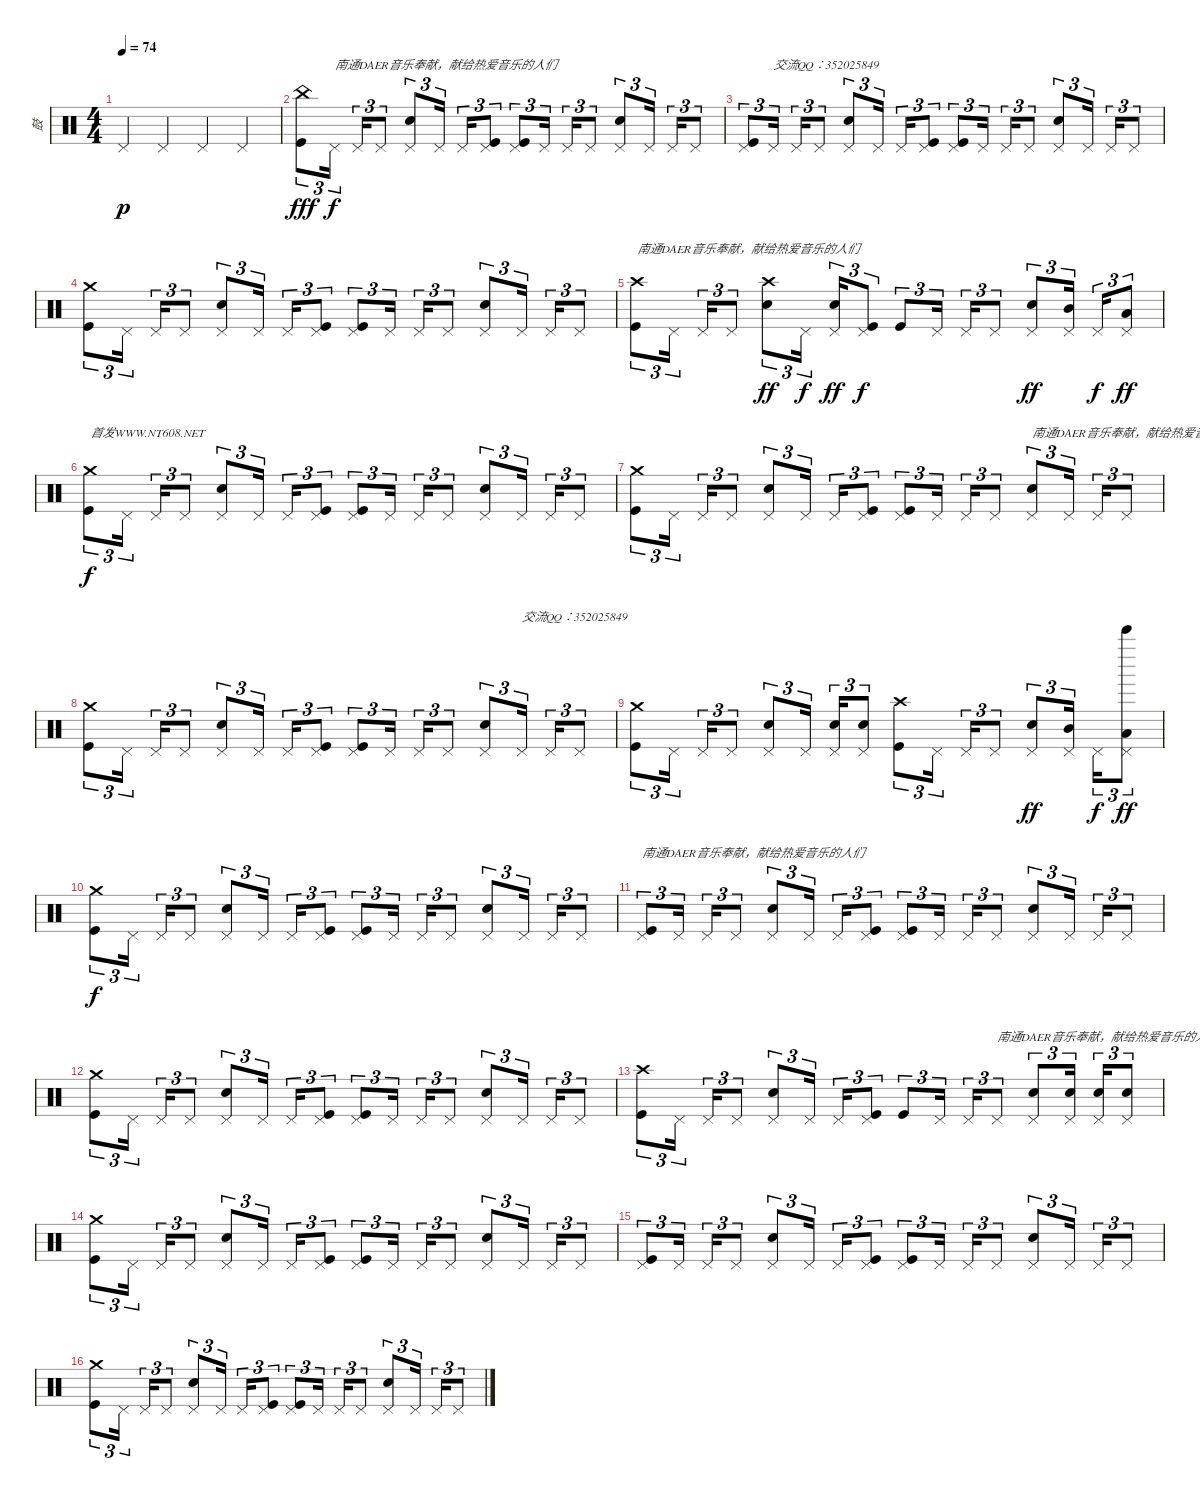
\track ("鼓" "鼓") {instrument percussion}
\staff {score}
\articulation defaults
\ts (4 4)
\tempo 74
\clef neutral
\ks c "Pedal Hi-Hat (hit)".4{dy p} "Pedal Hi-Hat (hit)".4 "Pedal Hi-Hat (hit)".4 "Pedal Hi-Hat (hit)".4
|
("China (hit)" "Kick (hit)").8{tu (3 2) dy fff} "Pedal Hi-Hat (hit)".16{tu (3 2) txt "南通DAER音乐奉献，献给热爱音乐的人们" dy f} "Pedal Hi-Hat (hit)".16{tu (3 2)} "Pedal Hi-Hat (hit)".8{tu (3 2)} ("Pedal Hi-Hat (hit)" "Electric Snare (hit)").8{tu (3 2)} "Pedal Hi-Hat (hit)".16{tu (3 2)} "Pedal Hi-Hat (hit)".16{tu (3 2)} ("Pedal Hi-Hat (hit)" "Kick (hit)").8{tu (3 2)} ("Pedal Hi-Hat (hit)" "Kick (hit)").8{tu (3 2)} "Pedal Hi-Hat (hit)".16{tu (3 2)} "Pedal Hi-Hat (hit)".16{tu (3 2)} "Pedal Hi-Hat (hit)".8{tu (3 2)} ("Pedal Hi-Hat (hit)" "Electric Snare (hit)").8{tu (3 2)} "Pedal Hi-Hat (hit)".16{tu (3 2)} "Pedal Hi-Hat (hit)".16{tu (3 2)} "Pedal Hi-Hat (hit)".8{tu (3 2)} |
("Pedal Hi-Hat (hit)" "Kick (hit)").8{tu (3 2)} "Pedal Hi-Hat (hit)".16{tu (3 2) txt "交流QQ：352025849"} "Pedal Hi-Hat (hit)".16{tu (3 2)} "Pedal Hi-Hat (hit)".8{tu (3 2)} ("Pedal Hi-Hat (hit)" "Electric Snare (hit)").8{tu (3 2)} "Pedal Hi-Hat (hit)".16{tu (3 2)} "Pedal Hi-Hat (hit)".16{tu (3 2)} ("Pedal Hi-Hat (hit)" "Kick (hit)").8{tu (3 2)} ("Pedal Hi-Hat (hit)" "Kick (hit)").8{tu (3 2)} "Pedal Hi-Hat (hit)".16{tu (3 2)} "Pedal Hi-Hat (hit)".16{tu (3 2)} "Pedal Hi-Hat (hit)".8{tu (3 2)} ("Pedal Hi-Hat (hit)" "Electric Snare (hit)").8{tu (3 2)} "Pedal Hi-Hat (hit)".16{tu (3 2)} "Pedal Hi-Hat (hit)".16{tu (3 2)} "Pedal Hi-Hat (hit)".8{tu (3 2)} |
("Crash medium (hit)" "Kick (hit)").8{tu (3 2)} "Pedal Hi-Hat (hit)".16{tu (3 2)} "Pedal Hi-Hat (hit)".16{tu (3 2)} "Pedal Hi-Hat (hit)".8{tu (3 2)} ("Pedal Hi-Hat (hit)" "Electric Snare (hit)").8{tu (3 2)} "Pedal Hi-Hat (hit)".16{tu (3 2)} "Pedal Hi-Hat (hit)".16{tu (3 2)} ("Pedal Hi-Hat (hit)" "Kick (hit)").8{tu (3 2)} ("Pedal Hi-Hat (hit)" "Kick (hit)").8{tu (3 2)} "Pedal Hi-Hat (hit)".16{tu (3 2)} "Pedal Hi-Hat (hit)".16{tu (3 2)} "Pedal Hi-Hat (hit)".8{tu (3 2)} ("Pedal Hi-Hat (hit)" "Electric Snare (hit)").8{tu (3 2)} "Pedal Hi-Hat (hit)".16{tu (3 2)} "Pedal Hi-Hat (hit)".16{tu (3 2)} "Pedal Hi-Hat (hit)".8{tu (3 2)} |
("Crash high (hit)" "Kick (hit)").8{tu (3 2) txt "南通DAER音乐奉献，献给热爱音乐的人们"} "Pedal Hi-Hat (hit)".16{tu (3 2)} "Pedal Hi-Hat (hit)".16{tu (3 2)} "Pedal Hi-Hat (hit)".8{tu (3 2)} ("Crash high (hit)" "Electric Snare (hit)").8{tu (3 2) dy ff} "Pedal Hi-Hat (hit)".16{tu (3 2) dy f} ("Pedal Hi-Hat (hit)" "Electric Snare (hit)").16{tu (3 2) dy ff} ("Pedal Hi-Hat (hit)" "Kick (hit)").8{tu (3 2) dy f} "Kick (hit)".8{tu (3 2)} "Pedal Hi-Hat (hit)".16{tu (3 2)} "Pedal Hi-Hat (hit)".16{tu (3 2)} "Pedal Hi-Hat (hit)".8{tu (3 2)} ("Pedal Hi-Hat (hit)" "Electric Snare (hit)").8{tu (3 2) dy ff} ("Pedal Hi-Hat (hit)" "Mid Tom (hit)").16{tu (3 2)} "Pedal Hi-Hat (hit)".16{tu (3 2) dy f} ("Pedal Hi-Hat (hit)" "Low Tom (hit)").8{tu (3 2) dy ff} |
("Crash medium (hit)" "Kick (hit)").8{tu (3 2) txt "首发WWW.NT608.NET" dy f} "Pedal Hi-Hat (hit)".16{tu (3 2)} "Pedal Hi-Hat (hit)".16{tu (3 2)} "Pedal Hi-Hat (hit)".8{tu (3 2)} ("Pedal Hi-Hat (hit)" "Electric Snare (hit)").8{tu (3 2)} "Pedal Hi-Hat (hit)".16{tu (3 2)} "Pedal Hi-Hat (hit)".16{tu (3 2)} ("Pedal Hi-Hat (hit)" "Kick (hit)").8{tu (3 2)} ("Pedal Hi-Hat (hit)" "Kick (hit)").8{tu (3 2)} "Pedal Hi-Hat (hit)".16{tu (3 2)} "Pedal Hi-Hat (hit)".16{tu (3 2)} "Pedal Hi-Hat (hit)".8{tu (3 2)} ("Pedal Hi-Hat (hit)" "Electric Snare (hit)").8{tu (3 2)} "Pedal Hi-Hat (hit)".16{tu (3 2)} "Pedal Hi-Hat (hit)".16{tu (3 2)} "Pedal Hi-Hat (hit)".8{tu (3 2)} |
("Crash medium (hit)" "Kick (hit)").8{tu (3 2)} "Pedal Hi-Hat (hit)".16{tu (3 2)} "Pedal Hi-Hat (hit)".16{tu (3 2)} "Pedal Hi-Hat (hit)".8{tu (3 2)} ("Pedal Hi-Hat (hit)" "Electric Snare (hit)").8{tu (3 2)} "Pedal Hi-Hat (hit)".16{tu (3 2)} "Pedal Hi-Hat (hit)".16{tu (3 2)} ("Pedal Hi-Hat (hit)" "Kick (hit)").8{tu (3 2)} ("Pedal Hi-Hat (hit)" "Kick (hit)").8{tu (3 2)} "Pedal Hi-Hat (hit)".16{tu (3 2)} "Pedal Hi-Hat (hit)".16{tu (3 2)} "Pedal Hi-Hat (hit)".8{tu (3 2)} ("Pedal Hi-Hat (hit)" "Electric Snare (hit)").8{tu (3 2) txt "南通DAER音乐奉献，献给热爱音乐的人们"} "Pedal Hi-Hat (hit)".16{tu (3 2)} "Pedal Hi-Hat (hit)".16{tu (3 2)} "Pedal Hi-Hat (hit)".8{tu (3 2)} |
("Crash medium (hit)" "Kick (hit)").8{tu (3 2)} "Pedal Hi-Hat (hit)".16{tu (3 2)} "Pedal Hi-Hat (hit)".16{tu (3 2)} "Pedal Hi-Hat (hit)".8{tu (3 2)} ("Pedal Hi-Hat (hit)" "Electric Snare (hit)").8{tu (3 2)} "Pedal Hi-Hat (hit)".16{tu (3 2)} "Pedal Hi-Hat (hit)".16{tu (3 2)} ("Pedal Hi-Hat (hit)" "Kick (hit)").8{tu (3 2)} ("Pedal Hi-Hat (hit)" "Kick (hit)").8{tu (3 2)} "Pedal Hi-Hat (hit)".16{tu (3 2)} "Pedal Hi-Hat (hit)".16{tu (3 2)} "Pedal Hi-Hat (hit)".8{tu (3 2)} ("Pedal Hi-Hat (hit)" "Electric Snare (hit)").8{tu (3 2)} "Pedal Hi-Hat (hit)".16{tu (3 2) txt "交流QQ：352025849"} "Pedal Hi-Hat (hit)".16{tu (3 2)} "Pedal Hi-Hat (hit)".8{tu (3 2)} |
("Crash medium (hit)" "Kick (hit)").8{tu (3 2)} "Pedal Hi-Hat (hit)".16{tu (3 2)} "Pedal Hi-Hat (hit)".16{tu (3 2)} "Pedal Hi-Hat (hit)".8{tu (3 2)} ("Pedal Hi-Hat (hit)" "Electric Snare (hit)").8{tu (3 2)} "Pedal Hi-Hat (hit)".16{tu (3 2)} ("Pedal Hi-Hat (hit)" "Electric Snare (hit)").16{tu (3 2)} ("Pedal Hi-Hat (hit)" "Electric Snare (hit)").8{tu (3 2)} ("Crash high (hit)" "Kick (hit)").8{tu (3 2)} "Pedal Hi-Hat (hit)".16{tu (3 2)} "Pedal Hi-Hat (hit)".16{tu (3 2)} "Pedal Hi-Hat (hit)".8{tu (3 2)} ("Pedal Hi-Hat (hit)" "Electric Snare (hit)").8{tu (3 2) dy ff} ("Pedal Hi-Hat (hit)" "Mid Tom (hit)").16{tu (3 2)} "Pedal Hi-Hat (hit)".16{tu (3 2) dy f} ("Bell Tree (hit)" "Pedal Hi-Hat (hit)" "Low Tom (hit)").8{tu (3 2) dy ff} |
("Crash medium (hit)" "Kick (hit)").8{tu (3 2) dy f} "Pedal Hi-Hat (hit)".16{tu (3 2)} "Pedal Hi-Hat (hit)".16{tu (3 2)} "Pedal Hi-Hat (hit)".8{tu (3 2)} ("Pedal Hi-Hat (hit)" "Electric Snare (hit)").8{tu (3 2)} "Pedal Hi-Hat (hit)".16{tu (3 2)} "Pedal Hi-Hat (hit)".16{tu (3 2)} ("Pedal Hi-Hat (hit)" "Kick (hit)").8{tu (3 2)} ("Pedal Hi-Hat (hit)" "Kick (hit)").8{tu (3 2)} "Pedal Hi-Hat (hit)".16{tu (3 2)} "Pedal Hi-Hat (hit)".16{tu (3 2)} "Pedal Hi-Hat (hit)".8{tu (3 2)} ("Pedal Hi-Hat (hit)" "Electric Snare (hit)").8{tu (3 2)} "Pedal Hi-Hat (hit)".16{tu (3 2)} "Pedal Hi-Hat (hit)".16{tu (3 2)} "Pedal Hi-Hat (hit)".8{tu (3 2)} |
("Pedal Hi-Hat (hit)" "Kick (hit)").8{tu (3 2) txt "南通DAER音乐奉献，献给热爱音乐的人们"} "Pedal Hi-Hat (hit)".16{tu (3 2)} "Pedal Hi-Hat (hit)".16{tu (3 2)} "Pedal Hi-Hat (hit)".8{tu (3 2)} ("Pedal Hi-Hat (hit)" "Electric Snare (hit)").8{tu (3 2)} "Pedal Hi-Hat (hit)".16{tu (3 2)} "Pedal Hi-Hat (hit)".16{tu (3 2)} ("Pedal Hi-Hat (hit)" "Kick (hit)").8{tu (3 2)} ("Pedal Hi-Hat (hit)" "Kick (hit)").8{tu (3 2)} "Pedal Hi-Hat (hit)".16{tu (3 2)} "Pedal Hi-Hat (hit)".16{tu (3 2)} "Pedal Hi-Hat (hit)".8{tu (3 2)} ("Pedal Hi-Hat (hit)" "Electric Snare (hit)").8{tu (3 2)} "Pedal Hi-Hat (hit)".16{tu (3 2)} "Pedal Hi-Hat (hit)".16{tu (3 2)} "Pedal Hi-Hat (hit)".8{tu (3 2)} |
("Crash medium (hit)" "Kick (hit)").8{tu (3 2)} "Pedal Hi-Hat (hit)".16{tu (3 2)} "Pedal Hi-Hat (hit)".16{tu (3 2)} "Pedal Hi-Hat (hit)".8{tu (3 2)} ("Pedal Hi-Hat (hit)" "Electric Snare (hit)").8{tu (3 2)} "Pedal Hi-Hat (hit)".16{tu (3 2)} "Pedal Hi-Hat (hit)".16{tu (3 2)} ("Pedal Hi-Hat (hit)" "Kick (hit)").8{tu (3 2)} ("Pedal Hi-Hat (hit)" "Kick (hit)").8{tu (3 2)} "Pedal Hi-Hat (hit)".16{tu (3 2)} "Pedal Hi-Hat (hit)".16{tu (3 2)} "Pedal Hi-Hat (hit)".8{tu (3 2)} ("Pedal Hi-Hat (hit)" "Electric Snare (hit)").8{tu (3 2)} "Pedal Hi-Hat (hit)".16{tu (3 2)} "Pedal Hi-Hat (hit)".16{tu (3 2)} "Pedal Hi-Hat (hit)".8{tu (3 2)} |
("Crash high (hit)" "Kick (hit)").8{tu (3 2)} "Pedal Hi-Hat (hit)".16{tu (3 2)} "Pedal Hi-Hat (hit)".16{tu (3 2)} "Pedal Hi-Hat (hit)".8{tu (3 2)} ("Pedal Hi-Hat (hit)" "Electric Snare (hit)").8{tu (3 2)} "Pedal Hi-Hat (hit)".16{tu (3 2)} "Pedal Hi-Hat (hit)".16{tu (3 2)} ("Pedal Hi-Hat (hit)" "Kick (hit)").8{tu (3 2)} "Kick (hit)".8{tu (3 2)} "Pedal Hi-Hat (hit)".16{tu (3 2)} "Pedal Hi-Hat (hit)".16{tu (3 2)} "Pedal Hi-Hat (hit)".8{tu (3 2) txt "南通DAER音乐奉献，献给热爱音乐的人们"} ("Pedal Hi-Hat (hit)" "Electric Snare (hit)").8{tu (3 2)} ("Pedal Hi-Hat (hit)" "Electric Snare (hit)").16{tu (3 2)} ("Pedal Hi-Hat (hit)" "Electric Snare (hit)").16{tu (3 2)} ("Pedal Hi-Hat (hit)" "Electric Snare (hit)").8{tu (3 2)} |
("Crash medium (hit)" "Kick (hit)").8{tu (3 2)} "Pedal Hi-Hat (hit)".16{tu (3 2)} "Pedal Hi-Hat (hit)".16{tu (3 2)} "Pedal Hi-Hat (hit)".8{tu (3 2)} ("Pedal Hi-Hat (hit)" "Electric Snare (hit)").8{tu (3 2)} "Pedal Hi-Hat (hit)".16{tu (3 2)} "Pedal Hi-Hat (hit)".16{tu (3 2)} ("Pedal Hi-Hat (hit)" "Kick (hit)").8{tu (3 2)} ("Pedal Hi-Hat (hit)" "Kick (hit)").8{tu (3 2)} "Pedal Hi-Hat (hit)".16{tu (3 2)} "Pedal Hi-Hat (hit)".16{tu (3 2)} "Pedal Hi-Hat (hit)".8{tu (3 2)} ("Pedal Hi-Hat (hit)" "Electric Snare (hit)").8{tu (3 2)} "Pedal Hi-Hat (hit)".16{tu (3 2)} "Pedal Hi-Hat (hit)".16{tu (3 2)} "Pedal Hi-Hat (hit)".8{tu (3 2)} |
("Pedal Hi-Hat (hit)" "Kick (hit)").8{tu (3 2)} "Pedal Hi-Hat (hit)".16{tu (3 2)} "Pedal Hi-Hat (hit)".16{tu (3 2)} "Pedal Hi-Hat (hit)".8{tu (3 2)} ("Pedal Hi-Hat (hit)" "Electric Snare (hit)").8{tu (3 2)} "Pedal Hi-Hat (hit)".16{tu (3 2)} "Pedal Hi-Hat (hit)".16{tu (3 2)} ("Pedal Hi-Hat (hit)" "Kick (hit)").8{tu (3 2)} ("Pedal Hi-Hat (hit)" "Kick (hit)").8{tu (3 2)} "Pedal Hi-Hat (hit)".16{tu (3 2)} "Pedal Hi-Hat (hit)".16{tu (3 2)} "Pedal Hi-Hat (hit)".8{tu (3 2)} ("Pedal Hi-Hat (hit)" "Electric Snare (hit)").8{tu (3 2)} "Pedal Hi-Hat (hit)".16{tu (3 2)} "Pedal Hi-Hat (hit)".16{tu (3 2)} "Pedal Hi-Hat (hit)".8{tu (3 2)} |
("Crash medium (hit)" "Kick (hit)").8{tu (3 2)} "Pedal Hi-Hat (hit)".16{tu (3 2)} "Pedal Hi-Hat (hit)".16{tu (3 2)} "Pedal Hi-Hat (hit)".8{tu (3 2)} ("Pedal Hi-Hat (hit)" "Electric Snare (hit)").8{tu (3 2)} "Pedal Hi-Hat (hit)".16{tu (3 2)} "Pedal Hi-Hat (hit)".16{tu (3 2)} ("Pedal Hi-Hat (hit)" "Kick (hit)").8{tu (3 2)} ("Pedal Hi-Hat (hit)" "Kick (hit)").8{tu (3 2)} "Pedal Hi-Hat (hit)".16{tu (3 2)} "Pedal Hi-Hat (hit)".16{tu (3 2)} "Pedal Hi-Hat (hit)".8{tu (3 2)} ("Pedal Hi-Hat (hit)" "Electric Snare (hit)").8{tu (3 2)} "Pedal Hi-Hat (hit)".16{tu (3 2)} "Pedal Hi-Hat (hit)".16{tu (3 2)} "Pedal Hi-Hat (hit)".8{tu (3 2)}
